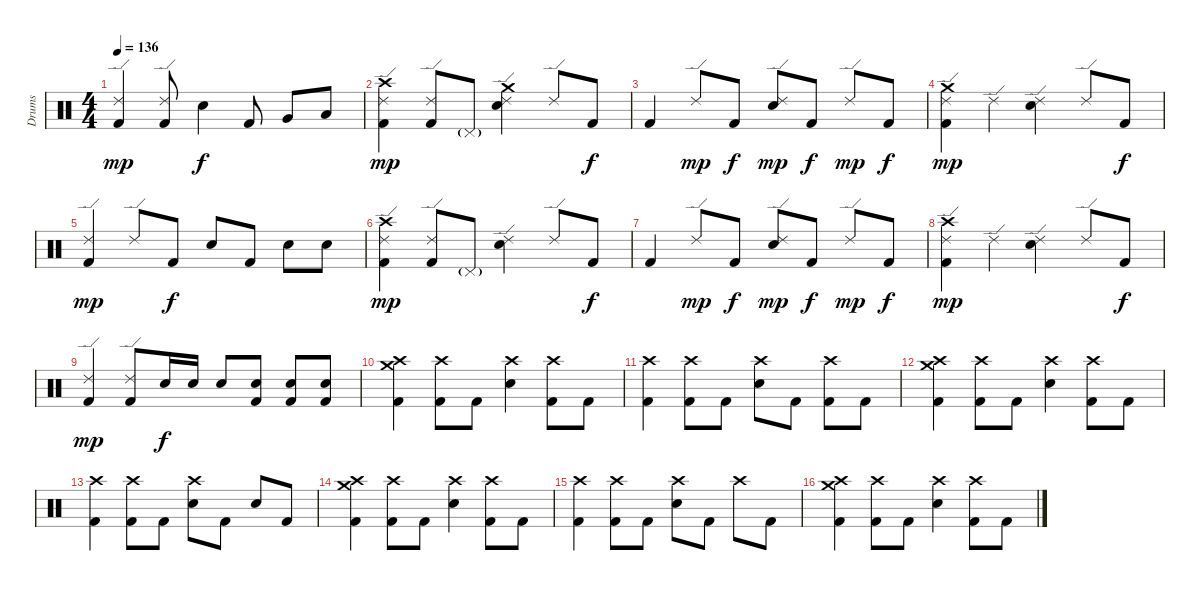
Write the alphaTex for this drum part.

\track ("Drums" "Drums") {instrument percussion}
\staff {score}
\articulation defaults
\ts (4 4)
\tempo 136
\clef neutral
\ks c
("Ride (edge) 2" "Kick (hit) 2").4{dy mp} ("Ride (edge) 2" "Kick (hit) 2").8 "Snare (hit) 2".4{dy f} "Kick (hit) 2".8 "Very Low Tom (hit)".8 "Low Tom (hit)".8 |
("Ride (edge) 2" "Crash high (hit)" "Kick (hit) 2").4{dy mp} ("Ride (edge) 2" "Kick (hit) 2").8 "Pedal Hi-Hat (hit)"{g}.8 ("Ride (edge) 2" "Crash medium (hit)" "Snare (hit) 2").4 "Ride (edge) 2".8 "Kick (hit) 2".8{dy f} |
"Kick (hit) 2".4 "Ride (edge) 2".8{dy mp} "Kick (hit) 2".8{dy f} ("Ride (edge) 2" "Snare (hit) 2").8{dy mp} "Kick (hit) 2".8{dy f} "Ride (edge) 2".8{dy mp} "Kick (hit) 2".8{dy f} |
("Ride (edge) 2" "Crash medium (hit)" "Kick (hit) 2").4{dy mp} "Ride (edge) 2".4 ("Ride (edge) 2" "Snare (hit) 2").4 "Ride (edge) 2".8 "Kick (hit) 2".8{dy f} |
("Ride (edge) 2" "Kick (hit) 2").4{dy mp} "Ride (edge) 2".8 "Kick (hit) 2".8{dy f} "Snare (hit) 2".8 "Kick (hit) 2".8 "Snare (hit) 2".8 "Snare (hit) 2".8 |
("Ride (edge) 2" "Crash high (hit)" "Kick (hit) 2").4{dy mp} ("Ride (edge) 2" "Kick (hit) 2").8 "Pedal Hi-Hat (hit)"{g}.8 ("Ride (edge) 2" "Snare (hit) 2").4 "Ride (edge) 2".8 "Kick (hit) 2".8{dy f} |
"Kick (hit) 2".4 "Ride (edge) 2".8{dy mp} "Kick (hit) 2".8{dy f} ("Ride (edge) 2" "Snare (hit) 2").8{dy mp} "Kick (hit) 2".8{dy f} "Ride (edge) 2".8{dy mp} "Kick (hit) 2".8{dy f} |
("Ride (edge) 2" "Crash high (hit)" "Kick (hit) 2").4{dy mp} "Ride (edge) 2".4 ("Ride (edge) 2" "Snare (hit) 2").4 "Ride (edge) 2".8 "Kick (hit) 2".8{dy f} |
("Ride (edge) 2" "Kick (hit) 2").4{dy mp} ("Ride (edge) 2" "Kick (hit) 2").8 "Snare (hit) 2".16{dy f} "Snare (hit) 2".16 "Snare (hit) 2".8 ("Snare (hit) 2" "Kick (hit) 2").8 ("Snare (hit) 2" "Kick (hit) 2").8 ("Snare (hit) 2" "Kick (hit) 2").8 |
("Crash high (hit)" "Crash medium (hit)" "Kick (hit) 2").4 ("Crash high (hit)" "Kick (hit) 2").8 "Kick (hit) 2".8 ("Crash high (hit)" "Snare (hit) 2").4 ("Crash high (hit)" "Kick (hit) 2").8 "Kick (hit) 2".8 |
("Crash high (hit)" "Kick (hit) 2").4 ("Crash high (hit)" "Kick (hit) 2").8 "Kick (hit) 2".8 ("Crash high (hit)" "Snare (hit) 2").8 "Kick (hit) 2".8 ("Crash high (hit)" "Kick (hit) 2").8 "Kick (hit) 2".8 |
("Crash high (hit)" "Crash medium (hit)" "Kick (hit) 2").4 ("Crash high (hit)" "Kick (hit) 2").8 "Kick (hit) 2".8 ("Crash high (hit)" "Snare (hit) 2").4 ("Crash high (hit)" "Kick (hit) 2").8 "Kick (hit) 2".8 |
("Crash high (hit)" "Kick (hit) 2").4 ("Crash high (hit)" "Kick (hit) 2").8 "Kick (hit) 2".8 ("Crash high (hit)" "Snare (hit) 2").8 "Kick (hit) 2".8 "Snare (hit) 2".8 "Kick (hit) 2".8 |
("Crash high (hit)" "Crash medium (hit)" "Kick (hit) 2").4 ("Crash high (hit)" "Kick (hit) 2").8 "Kick (hit) 2".8 ("Crash high (hit)" "Snare (hit) 2").4 ("Crash high (hit)" "Kick (hit) 2").8 "Kick (hit) 2".8 |
("Crash high (hit)" "Kick (hit) 2").4 ("Crash high (hit)" "Kick (hit) 2").8 "Kick (hit) 2".8 ("Crash high (hit)" "Snare (hit) 2").8 "Kick (hit) 2".8 "Crash high (hit)".8 "Kick (hit) 2".8 |
("Crash high (hit)" "Crash medium (hit)" "Kick (hit) 2").4 ("Crash high (hit)" "Kick (hit) 2").8 "Kick (hit) 2".8 ("Crash high (hit)" "Snare (hit) 2").4 ("Crash high (hit)" "Kick (hit) 2").8 "Kick (hit) 2".8
